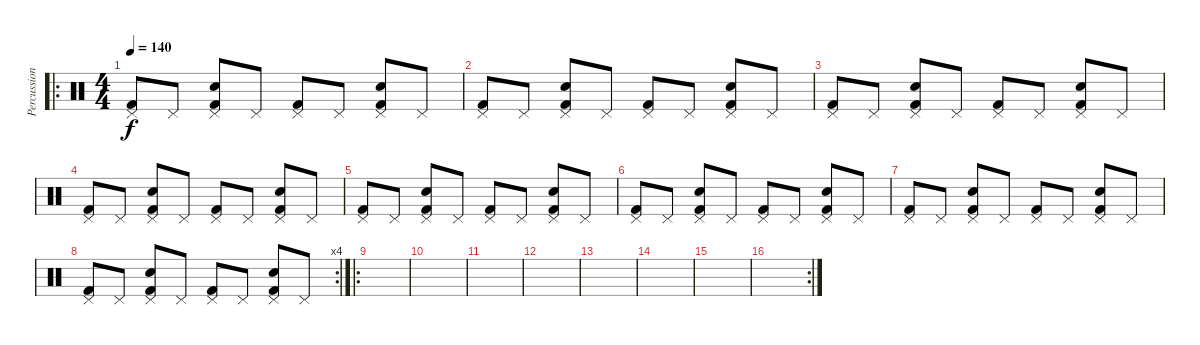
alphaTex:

\track ("Percussion" "Percussion") {instrument percussion}
\staff {score}
\articulation defaults
\ro
\ts (4 4)
\tempo 140
\clef neutral
\ks c
("Kick (hit) 2" "Pedal Hi-Hat (hit)").8{dy f} "Pedal Hi-Hat (hit)".8 ("Electric Snare (hit)" "Kick (hit) 2" "Pedal Hi-Hat (hit)").8 "Pedal Hi-Hat (hit)".8 ("Kick (hit) 2" "Pedal Hi-Hat (hit)").8 "Pedal Hi-Hat (hit)".8 ("Electric Snare (hit)" "Kick (hit) 2" "Pedal Hi-Hat (hit)").8 "Pedal Hi-Hat (hit)".8 |
("Kick (hit) 2" "Pedal Hi-Hat (hit)").8 "Pedal Hi-Hat (hit)".8 ("Electric Snare (hit)" "Kick (hit) 2" "Pedal Hi-Hat (hit)").8 "Pedal Hi-Hat (hit)".8 ("Kick (hit) 2" "Pedal Hi-Hat (hit)").8 "Pedal Hi-Hat (hit)".8 ("Electric Snare (hit)" "Kick (hit) 2" "Pedal Hi-Hat (hit)").8 "Pedal Hi-Hat (hit)".8 |
("Kick (hit) 2" "Pedal Hi-Hat (hit)").8 "Pedal Hi-Hat (hit)".8 ("Electric Snare (hit)" "Kick (hit) 2" "Pedal Hi-Hat (hit)").8 "Pedal Hi-Hat (hit)".8 ("Kick (hit) 2" "Pedal Hi-Hat (hit)").8 "Pedal Hi-Hat (hit)".8 ("Electric Snare (hit)" "Kick (hit) 2" "Pedal Hi-Hat (hit)").8 "Pedal Hi-Hat (hit)".8 |
("Kick (hit) 2" "Pedal Hi-Hat (hit)").8 "Pedal Hi-Hat (hit)".8 ("Electric Snare (hit)" "Kick (hit) 2" "Pedal Hi-Hat (hit)").8 "Pedal Hi-Hat (hit)".8 ("Kick (hit) 2" "Pedal Hi-Hat (hit)").8 "Pedal Hi-Hat (hit)".8 ("Electric Snare (hit)" "Kick (hit) 2" "Pedal Hi-Hat (hit)").8 "Pedal Hi-Hat (hit)".8 |
("Kick (hit) 2" "Pedal Hi-Hat (hit)").8 "Pedal Hi-Hat (hit)".8 ("Electric Snare (hit)" "Kick (hit) 2" "Pedal Hi-Hat (hit)").8 "Pedal Hi-Hat (hit)".8 ("Kick (hit) 2" "Pedal Hi-Hat (hit)").8 "Pedal Hi-Hat (hit)".8 ("Electric Snare (hit)" "Kick (hit) 2" "Pedal Hi-Hat (hit)").8 "Pedal Hi-Hat (hit)".8 |
("Kick (hit) 2" "Pedal Hi-Hat (hit)").8 "Pedal Hi-Hat (hit)".8 ("Electric Snare (hit)" "Kick (hit) 2" "Pedal Hi-Hat (hit)").8 "Pedal Hi-Hat (hit)".8 ("Kick (hit) 2" "Pedal Hi-Hat (hit)").8 "Pedal Hi-Hat (hit)".8 ("Electric Snare (hit)" "Kick (hit) 2" "Pedal Hi-Hat (hit)").8 "Pedal Hi-Hat (hit)".8 |
("Kick (hit) 2" "Pedal Hi-Hat (hit)").8 "Pedal Hi-Hat (hit)".8 ("Electric Snare (hit)" "Kick (hit) 2" "Pedal Hi-Hat (hit)").8 "Pedal Hi-Hat (hit)".8 ("Kick (hit) 2" "Pedal Hi-Hat (hit)").8 "Pedal Hi-Hat (hit)".8 ("Electric Snare (hit)" "Kick (hit) 2" "Pedal Hi-Hat (hit)").8 "Pedal Hi-Hat (hit)".8 |
\rc 4
("Kick (hit) 2" "Pedal Hi-Hat (hit)").8 "Pedal Hi-Hat (hit)".8 ("Electric Snare (hit)" "Kick (hit) 2" "Pedal Hi-Hat (hit)").8 "Pedal Hi-Hat (hit)".8 ("Kick (hit) 2" "Pedal Hi-Hat (hit)").8 "Pedal Hi-Hat (hit)".8 ("Electric Snare (hit)" "Kick (hit) 2" "Pedal Hi-Hat (hit)").8 "Pedal Hi-Hat (hit)".8 |
\ro
|
|
|
|
|
|
|
\rc 2
